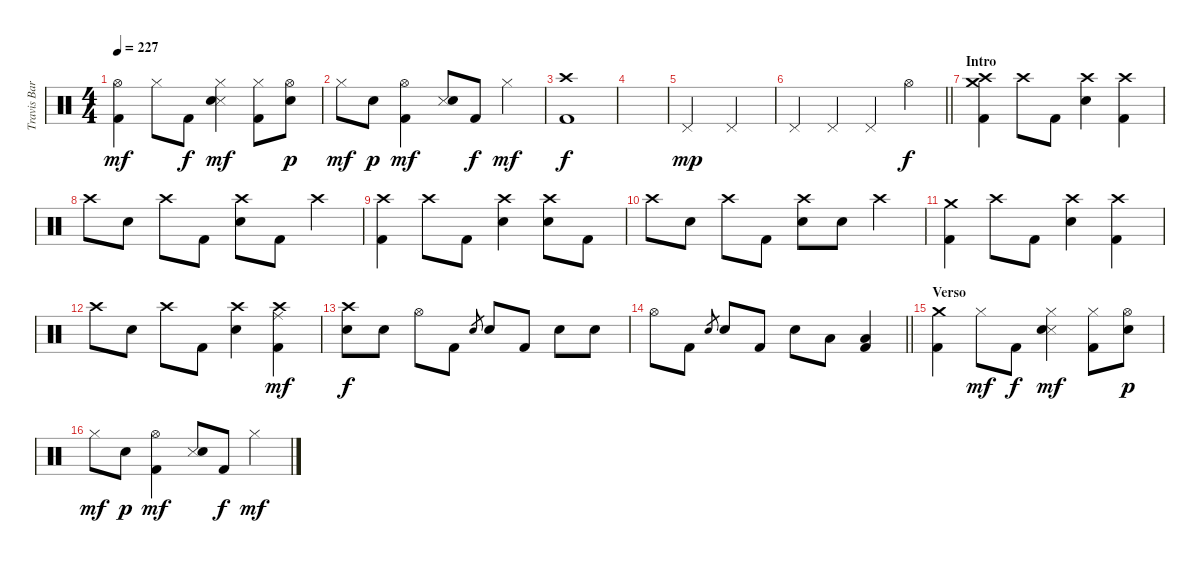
\track ("Travis Barker - Drum" "Travis Bar") {instrument percussion}
\staff {score}
\articulation defaults
\ts (4 4)
\tempo 227
\clef neutral
\ks c
("Hi-Hat (open)" "Kick (hit) 2").4{dy mf} "Hi-Hat (closed)".8 "Kick (hit) 2".8{dy f} ("Hi-Hat (closed)" "Snare (side stick) 3" "Electric Snare (hit)").4{dy mf} ("Hi-Hat (closed)" "Kick (hit) 2").8 ("Hi-Hat (open)" "Electric Snare (hit)").8{dy p} |
"Hi-Hat (closed)".8{dy mf} "Electric Snare (hit)".8{dy p} ("Hi-Hat (open)" "Kick (hit) 2").4{dy mf} ("Snare (side stick) 3" "Electric Snare (hit)").8 "Kick (hit) 2".8{dy f} "Hi-Hat (closed)".4{dy mf} |
("Crash high (hit)" "Kick (hit) 2").1{dy f} |
|
"Pedal Hi-Hat (hit)".2{dy mp} "Pedal Hi-Hat (hit)".2 |
\barLineRight lightlight "Pedal Hi-Hat (hit)".4 "Pedal Hi-Hat (hit)".4 "Pedal Hi-Hat (hit)".4 "Hi-Hat (open)".4{dy f}
|
\section ("" "Intro")
("Crash medium (hit)" "Crash high (hit)" "Kick (hit) 2").4 "Crash high (hit)".8 "Kick (hit) 2".8 ("Crash high (hit)" "Electric Snare (hit)").4 ("Crash high (hit)" "Kick (hit) 2").4 |
"Crash high (hit)".8 "Electric Snare (hit)".8 "Crash high (hit)".8 "Kick (hit) 2".8 ("Crash high (hit)" "Electric Snare (hit)").8 "Kick (hit) 2".8 "Crash high (hit)".4 |
("Crash high (hit)" "Kick (hit) 2").4 "Crash high (hit)".8 "Kick (hit) 2".8 ("Crash high (hit)" "Electric Snare (hit)").4 ("Crash high (hit)" "Electric Snare (hit)").8 "Kick (hit) 2".8 |
"Crash high (hit)".8 "Electric Snare (hit)".8 "Crash high (hit)".8 "Kick (hit) 2".8 ("Crash high (hit)" "Electric Snare (hit)").8 "Electric Snare (hit)".8 "Crash high (hit)".4 |
("Crash medium (hit)" "Kick (hit) 2").4 "Crash high (hit)".8 "Kick (hit) 2".8 ("Crash high (hit)" "Electric Snare (hit)").4 ("Crash high (hit)" "Kick (hit) 2").4 |
"Crash high (hit)".8 "Electric Snare (hit)".8 "Crash high (hit)".8 "Kick (hit) 2".8 ("Crash high (hit)" "Electric Snare (hit)").4 ("Crash high (hit)" "Ride (middle)" "Kick (hit) 2").4{dy mf} |
("Crash high (hit)" "Electric Snare (hit)").8{dy f} "Electric Snare (hit)".8 "Hi-Hat (open)".8 "Kick (hit) 2".8 "Electric Snare (hit)".8{gr} "Electric Snare (hit)".8 "Kick (hit) 2".8 "Electric Snare (hit)".8 "Electric Snare (hit)".8 |
\barLineRight lightlight "Hi-Hat (open)".8 "Kick (hit) 2".8 "Electric Snare (hit)".8{gr} "Electric Snare (hit)".8 "Kick (hit) 2".8 "Electric Snare (hit)".8 "Low Tom (hit)".8
("Low Floor Tom (hit)" "Kick (hit) 2").4 |
\section ("" "Verso")
("Crash medium (hit)" "Kick (hit) 2").4 "Hi-Hat (closed)".8{dy mf} "Kick (hit) 2".8{dy f} ("Hi-Hat (closed)" "Snare (side stick) 3" "Electric Snare (hit)").4{dy mf} ("Hi-Hat (closed)" "Kick (hit) 2").8 ("Hi-Hat (open)" "Electric Snare (hit)").8{dy p} |
"Hi-Hat (closed)".8{dy mf} "Electric Snare (hit)".8{dy p} ("Hi-Hat (open)" "Kick (hit) 2").4{dy mf} ("Snare (side stick) 3" "Electric Snare (hit)").8 "Kick (hit) 2".8{dy f} "Hi-Hat (closed)".4{dy mf}
